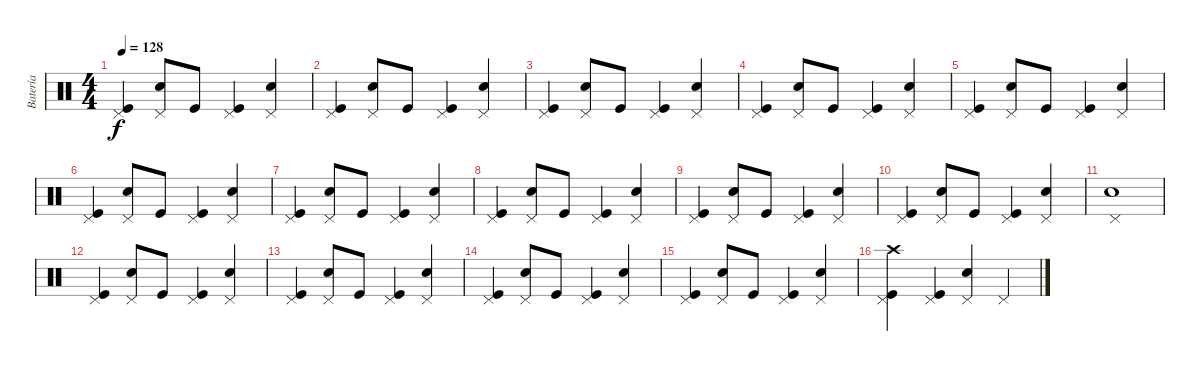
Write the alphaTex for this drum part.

\track ("Batería" "Batería") {instrument percussion}
\staff {score}
\articulation defaults
\ts (4 4)
\tempo 128
\clef neutral
\ks c
("Pedal Hi-Hat (hit)" "Kick (hit)").4{dy f} ("Pedal Hi-Hat (hit)" "Snare (hit) 2").8 "Kick (hit)".8 ("Pedal Hi-Hat (hit)" "Kick (hit)").4 ("Pedal Hi-Hat (hit)" "Snare (hit) 2").4 |
("Pedal Hi-Hat (hit)" "Kick (hit)").4 ("Pedal Hi-Hat (hit)" "Snare (hit) 2").8 "Kick (hit)".8 ("Pedal Hi-Hat (hit)" "Kick (hit)").4 ("Pedal Hi-Hat (hit)" "Snare (hit) 2").4 |
("Pedal Hi-Hat (hit)" "Kick (hit)").4 ("Pedal Hi-Hat (hit)" "Snare (hit) 2").8 "Kick (hit)".8 ("Pedal Hi-Hat (hit)" "Kick (hit)").4 ("Pedal Hi-Hat (hit)" "Snare (hit) 2").4 |
("Pedal Hi-Hat (hit)" "Kick (hit)").4 ("Pedal Hi-Hat (hit)" "Snare (hit) 2").8 "Kick (hit)".8 ("Pedal Hi-Hat (hit)" "Kick (hit)").4 ("Pedal Hi-Hat (hit)" "Snare (hit) 2").4 |
("Pedal Hi-Hat (hit)" "Kick (hit)").4 ("Pedal Hi-Hat (hit)" "Snare (hit) 2").8 "Kick (hit)".8 ("Pedal Hi-Hat (hit)" "Kick (hit)").4 ("Pedal Hi-Hat (hit)" "Snare (hit) 2").4 |
("Pedal Hi-Hat (hit)" "Kick (hit)").4 ("Pedal Hi-Hat (hit)" "Snare (hit) 2").8 "Kick (hit)".8 ("Pedal Hi-Hat (hit)" "Kick (hit)").4 ("Pedal Hi-Hat (hit)" "Snare (hit) 2").4 |
("Pedal Hi-Hat (hit)" "Kick (hit)").4 ("Pedal Hi-Hat (hit)" "Snare (hit) 2").8 "Kick (hit)".8 ("Pedal Hi-Hat (hit)" "Kick (hit)").4 ("Pedal Hi-Hat (hit)" "Snare (hit) 2").4 |
("Pedal Hi-Hat (hit)" "Kick (hit)").4 ("Pedal Hi-Hat (hit)" "Snare (hit) 2").8 "Kick (hit)".8 ("Pedal Hi-Hat (hit)" "Kick (hit)").4 ("Pedal Hi-Hat (hit)" "Snare (hit) 2").4 |
("Pedal Hi-Hat (hit)" "Kick (hit)").4 ("Pedal Hi-Hat (hit)" "Snare (hit) 2").8 "Kick (hit)".8 ("Pedal Hi-Hat (hit)" "Kick (hit)").4 ("Pedal Hi-Hat (hit)" "Snare (hit) 2").4 |
("Pedal Hi-Hat (hit)" "Kick (hit)").4 ("Pedal Hi-Hat (hit)" "Snare (hit) 2").8 "Kick (hit)".8 ("Pedal Hi-Hat (hit)" "Kick (hit)").4 ("Pedal Hi-Hat (hit)" "Snare (hit) 2").4 |
("Pedal Hi-Hat (hit)" "Snare (hit) 2").1 |
("Pedal Hi-Hat (hit)" "Kick (hit)").4 ("Pedal Hi-Hat (hit)" "Snare (hit) 2").8 "Kick (hit)".8 ("Pedal Hi-Hat (hit)" "Kick (hit)").4 ("Pedal Hi-Hat (hit)" "Snare (hit) 2").4 |
("Pedal Hi-Hat (hit)" "Kick (hit)").4 ("Pedal Hi-Hat (hit)" "Snare (hit) 2").8 "Kick (hit)".8 ("Pedal Hi-Hat (hit)" "Kick (hit)").4 ("Pedal Hi-Hat (hit)" "Snare (hit) 2").4 |
("Pedal Hi-Hat (hit)" "Kick (hit)").4 ("Pedal Hi-Hat (hit)" "Snare (hit) 2").8 "Kick (hit)".8 ("Pedal Hi-Hat (hit)" "Kick (hit)").4 ("Pedal Hi-Hat (hit)" "Snare (hit) 2").4 |
("Pedal Hi-Hat (hit)" "Kick (hit)").4 ("Pedal Hi-Hat (hit)" "Snare (hit) 2").8 "Kick (hit)".8 ("Pedal Hi-Hat (hit)" "Kick (hit)").4 ("Pedal Hi-Hat (hit)" "Snare (hit) 2").4 |
("Crash high (hit)" "Pedal Hi-Hat (hit)" "Kick (hit)").4 ("Pedal Hi-Hat (hit)" "Kick (hit)").4 ("Pedal Hi-Hat (hit)" "Snare (hit) 2").4 "Pedal Hi-Hat (hit)".4
